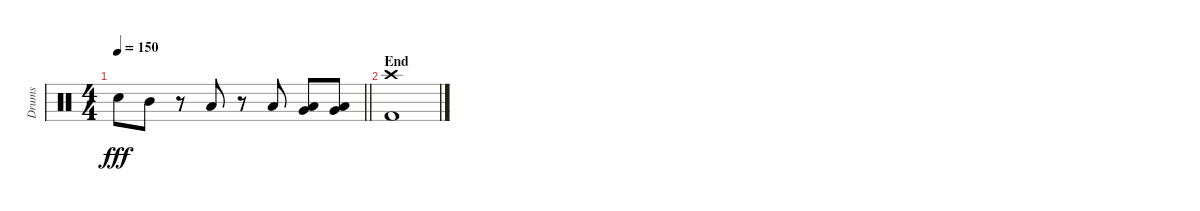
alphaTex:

\track ("Drums" "Drums") {instrument percussion}
\staff {score}
\articulation defaults
\ts (4 4)
\tempo 150
\clef neutral
\barLineRight lightlight
\ks c "Electric Snare (hit)".8{dy fff} "Mid Tom (hit)".8
r.8 "Low Tom (hit)".8 r.8 "Low Floor Tom (hit)".8 ("Low Tom (hit)" "Very Low Tom (hit)").8 ("Low Tom (hit)" "Very Low Tom (hit)").8 |
\section ("" "End")
("Kick (hit) 2" "Crash high (hit)").1
